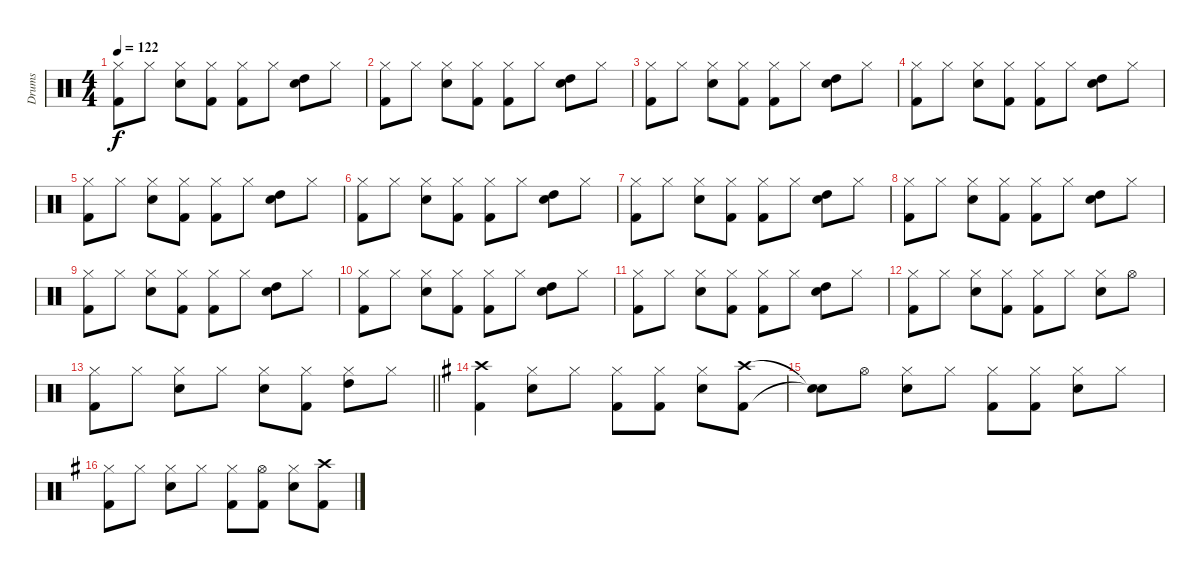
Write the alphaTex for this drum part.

\track ("Drums" "Drums") {instrument percussion}
\staff {score}
\articulation defaults
\ts (4 4)
\tempo 122
\clef neutral
\ks c
("Hi-Hat (closed)" "Kick (hit) 2").8{dy f} "Hi-Hat (closed)".8 ("Hi-Hat (closed)" "Electric Snare (hit)").8 ("Hi-Hat (closed)" "Kick (hit) 2").8 ("Hi-Hat (closed)" "Kick (hit) 2").8 "Hi-Hat (closed)".8 ("Electric Snare (hit)" "High Tom (hit)").8 "Hi-Hat (closed)".8 |
("Hi-Hat (closed)" "Kick (hit) 2").8 "Hi-Hat (closed)".8 ("Hi-Hat (closed)" "Electric Snare (hit)").8 ("Hi-Hat (closed)" "Kick (hit) 2").8 ("Hi-Hat (closed)" "Kick (hit) 2").8 "Hi-Hat (closed)".8 ("Electric Snare (hit)" "High Tom (hit)").8 "Hi-Hat (closed)".8 |
("Hi-Hat (closed)" "Kick (hit) 2").8 "Hi-Hat (closed)".8 ("Hi-Hat (closed)" "Electric Snare (hit)").8 ("Hi-Hat (closed)" "Kick (hit) 2").8 ("Hi-Hat (closed)" "Kick (hit) 2").8 "Hi-Hat (closed)".8 ("Electric Snare (hit)" "High Tom (hit)").8 "Hi-Hat (closed)".8 |
("Hi-Hat (closed)" "Kick (hit) 2").8 "Hi-Hat (closed)".8 ("Hi-Hat (closed)" "Electric Snare (hit)").8 ("Hi-Hat (closed)" "Kick (hit) 2").8 ("Hi-Hat (closed)" "Kick (hit) 2").8 "Hi-Hat (closed)".8 ("Electric Snare (hit)" "High Tom (hit)").8 "Hi-Hat (closed)".8 |
("Hi-Hat (closed)" "Kick (hit) 2").8 "Hi-Hat (closed)".8 ("Hi-Hat (closed)" "Electric Snare (hit)").8 ("Hi-Hat (closed)" "Kick (hit) 2").8 ("Hi-Hat (closed)" "Kick (hit) 2").8 "Hi-Hat (closed)".8 ("Electric Snare (hit)" "High Tom (hit)").8 "Hi-Hat (closed)".8 |
("Hi-Hat (closed)" "Kick (hit) 2").8 "Hi-Hat (closed)".8 ("Hi-Hat (closed)" "Electric Snare (hit)").8 ("Hi-Hat (closed)" "Kick (hit) 2").8 ("Hi-Hat (closed)" "Kick (hit) 2").8 "Hi-Hat (closed)".8 ("Electric Snare (hit)" "High Tom (hit)").8 "Hi-Hat (closed)".8 |
("Hi-Hat (closed)" "Kick (hit) 2").8 "Hi-Hat (closed)".8 ("Hi-Hat (closed)" "Electric Snare (hit)").8 ("Hi-Hat (closed)" "Kick (hit) 2").8 ("Hi-Hat (closed)" "Kick (hit) 2").8 "Hi-Hat (closed)".8 ("Electric Snare (hit)" "High Tom (hit)").8 "Hi-Hat (closed)".8 |
("Hi-Hat (closed)" "Kick (hit) 2").8 "Hi-Hat (closed)".8 ("Hi-Hat (closed)" "Electric Snare (hit)").8 ("Hi-Hat (closed)" "Kick (hit) 2").8 ("Hi-Hat (closed)" "Kick (hit) 2").8 "Hi-Hat (closed)".8 ("Electric Snare (hit)" "High Tom (hit)").8 "Hi-Hat (closed)".8 |
("Hi-Hat (closed)" "Kick (hit) 2").8 "Hi-Hat (closed)".8 ("Hi-Hat (closed)" "Electric Snare (hit)").8 ("Hi-Hat (closed)" "Kick (hit) 2").8 ("Hi-Hat (closed)" "Kick (hit) 2").8 "Hi-Hat (closed)".8 ("Electric Snare (hit)" "High Tom (hit)").8 "Hi-Hat (closed)".8 |
("Hi-Hat (closed)" "Kick (hit) 2").8 "Hi-Hat (closed)".8 ("Hi-Hat (closed)" "Electric Snare (hit)").8 ("Hi-Hat (closed)" "Kick (hit) 2").8 ("Hi-Hat (closed)" "Kick (hit) 2").8 "Hi-Hat (closed)".8 ("Electric Snare (hit)" "High Tom (hit)").8 "Hi-Hat (closed)".8 |
("Hi-Hat (closed)" "Kick (hit) 2").8 "Hi-Hat (closed)".8 ("Hi-Hat (closed)" "Electric Snare (hit)").8 ("Hi-Hat (closed)" "Kick (hit) 2").8 ("Hi-Hat (closed)" "Kick (hit) 2").8 "Hi-Hat (closed)".8 ("Electric Snare (hit)" "High Tom (hit)").8 "Hi-Hat (closed)".8 |
("Hi-Hat (closed)" "Kick (hit) 2").8 "Hi-Hat (closed)".8 ("Hi-Hat (closed)" "Electric Snare (hit)").8 ("Hi-Hat (closed)" "Kick (hit) 2").8 ("Hi-Hat (closed)" "Kick (hit) 2").8 "Hi-Hat (closed)".8 ("Hi-Hat (closed)" "Electric Snare (hit)").8 "Hi-Hat (open)".8 |
\barLineRight lightlight
("Hi-Hat (closed)" "Kick (hit) 2").8 "Hi-Hat (closed)".8 ("Hi-Hat (closed)" "Electric Snare (hit)").8 "Hi-Hat (closed)".8 ("Hi-Hat (closed)" "Electric Snare (hit)").8 ("Hi-Hat (closed)" "Kick (hit) 2").8 ("Hi-Hat (closed)" "High Tom (hit)").8 "Hi-Hat (closed)".8 |
\ks g
("Crash high (hit)" "Kick (hit) 2").4 ("Hi-Hat (closed)" "Electric Snare (hit)").8 "Hi-Hat (closed)".8 ("Hi-Hat (closed)" "Kick (hit) 2").8 ("Hi-Hat (closed)" "Kick (hit) 2").8 ("Hi-Hat (closed)" "Electric Snare (hit)").8 ("Crash high (hit)" "Kick (hit) 2").8 |
("Snare (hit)"{t} "Snare (hit)"{t}).8 "Hi-Hat (open)".8 ("Hi-Hat (closed)" "Electric Snare (hit)").8 "Hi-Hat (closed)".8 ("Hi-Hat (closed)" "Kick (hit) 2").8 ("Hi-Hat (closed)" "Kick (hit) 2").8 ("Hi-Hat (closed)" "Electric Snare (hit)").8 "Hi-Hat (closed)".8 |
("Hi-Hat (closed)" "Kick (hit) 2").8 "Hi-Hat (closed)".8 ("Hi-Hat (closed)" "Electric Snare (hit)").8 "Hi-Hat (closed)".8 ("Hi-Hat (closed)" "Kick (hit) 2").8 ("Hi-Hat (open)" "Kick (hit) 2").8 ("Hi-Hat (closed)" "Electric Snare (hit)").8 ("Crash high (hit)" "Kick (hit) 2").8
